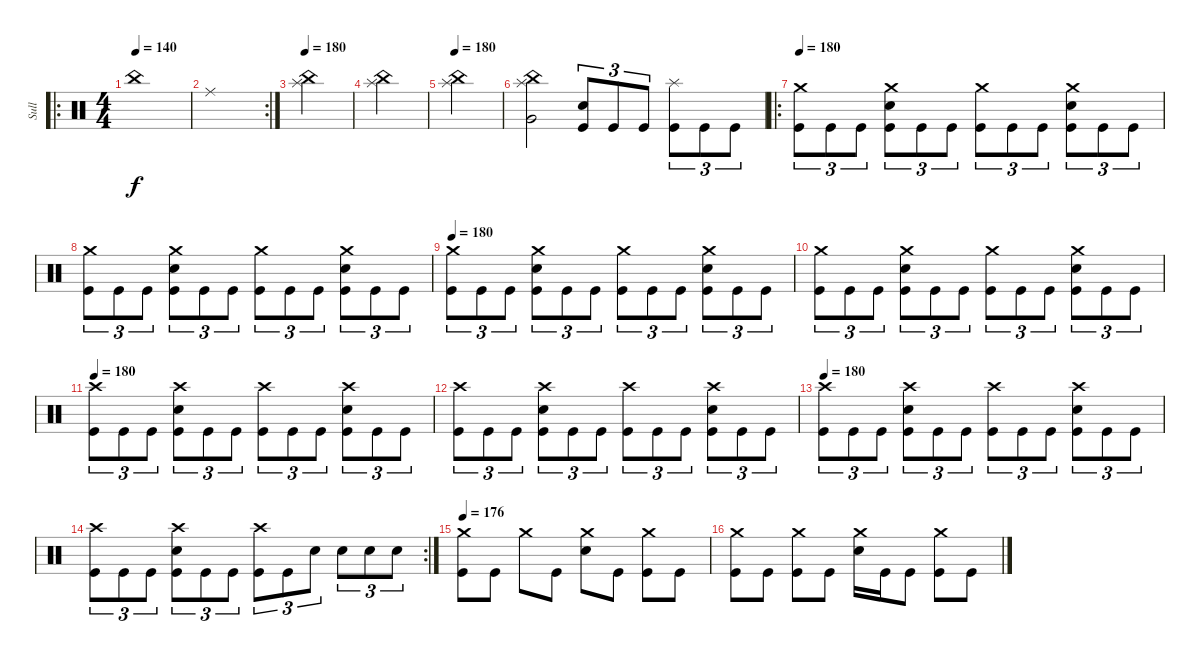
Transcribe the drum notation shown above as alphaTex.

\track ("Sull" "Sull") {instrument percussion}
\staff {score}
\articulation defaults
\ro
\ts (4 4)
\tempo 140
\tempo 180
\tempo 140
\clef neutral
\ks c "China (hit)".1{dy f}
|
\rc 2 "Ride (middle)".1
|
\tempo 180
("China (hit)" "Splash (hit)").4 |
("China (hit)" "Splash (hit)").4 |
\tempo 180
("China (hit)" "Splash (hit)").4 |
("China (hit)" "Splash (hit)" "Very Low Tom (hit)").2 ("Electric Snare (hit)" "Kick (hit)").8{tu (3 2)} "Kick (hit)".8{tu (3 2)} "Kick (hit)".8{tu (3 2)} ("Splash (hit)" "Kick (hit)").8{tu (3 2)} "Kick (hit)".8{tu (3 2)} "Kick (hit)".8{tu (3 2)} |
\ro
\tempo 180
("Crash medium (hit)" "Kick (hit)").8{tu (3 2)} "Kick (hit)".8{tu (3 2)} "Kick (hit)".8{tu (3 2)} ("Crash medium (hit)" "Electric Snare (hit)" "Kick (hit)").8{tu (3 2)} "Kick (hit)".8{tu (3 2)} "Kick (hit)".8{tu (3 2)} ("Crash medium (hit)" "Kick (hit)").8{tu (3 2)} "Kick (hit)".8{tu (3 2)} "Kick (hit)".8{tu (3 2)} ("Crash medium (hit)" "Electric Snare (hit)" "Kick (hit)").8{tu (3 2)} "Kick (hit)".8{tu (3 2)} "Kick (hit)".8{tu (3 2)} |
("Crash medium (hit)" "Kick (hit)").8{tu (3 2)} "Kick (hit)".8{tu (3 2)} "Kick (hit)".8{tu (3 2)} ("Crash medium (hit)" "Electric Snare (hit)" "Kick (hit)").8{tu (3 2)} "Kick (hit)".8{tu (3 2)} "Kick (hit)".8{tu (3 2)} ("Crash medium (hit)" "Kick (hit)").8{tu (3 2)} "Kick (hit)".8{tu (3 2)} "Kick (hit)".8{tu (3 2)} ("Crash medium (hit)" "Electric Snare (hit)" "Kick (hit)").8{tu (3 2)} "Kick (hit)".8{tu (3 2)} "Kick (hit)".8{tu (3 2)} |
\tempo 180
("Crash medium (hit)" "Kick (hit)").8{tu (3 2)} "Kick (hit)".8{tu (3 2)} "Kick (hit)".8{tu (3 2)} ("Crash medium (hit)" "Electric Snare (hit)" "Kick (hit)").8{tu (3 2)} "Kick (hit)".8{tu (3 2)} "Kick (hit)".8{tu (3 2)} ("Crash medium (hit)" "Kick (hit)").8{tu (3 2)} "Kick (hit)".8{tu (3 2)} "Kick (hit)".8{tu (3 2)} ("Crash medium (hit)" "Electric Snare (hit)" "Kick (hit)").8{tu (3 2)} "Kick (hit)".8{tu (3 2)} "Kick (hit)".8{tu (3 2)} |
("Crash medium (hit)" "Kick (hit)").8{tu (3 2)} "Kick (hit)".8{tu (3 2)} "Kick (hit)".8{tu (3 2)} ("Crash medium (hit)" "Electric Snare (hit)" "Kick (hit)").8{tu (3 2)} "Kick (hit)".8{tu (3 2)} "Kick (hit)".8{tu (3 2)} ("Crash medium (hit)" "Kick (hit)").8{tu (3 2)} "Kick (hit)".8{tu (3 2)} "Kick (hit)".8{tu (3 2)} ("Crash medium (hit)" "Electric Snare (hit)" "Kick (hit)").8{tu (3 2)} "Kick (hit)".8{tu (3 2)} "Kick (hit)".8{tu (3 2)} |
\tempo 180
("Crash high (hit)" "Kick (hit)").8{tu (3 2)} "Kick (hit)".8{tu (3 2)} "Kick (hit)".8{tu (3 2)} ("Crash high (hit)" "Electric Snare (hit)" "Kick (hit)").8{tu (3 2)} "Kick (hit)".8{tu (3 2)} "Kick (hit)".8{tu (3 2)} ("Crash high (hit)" "Kick (hit)").8{tu (3 2)} "Kick (hit)".8{tu (3 2)} "Kick (hit)".8{tu (3 2)} ("Crash high (hit)" "Electric Snare (hit)" "Kick (hit)").8{tu (3 2)} "Kick (hit)".8{tu (3 2)} "Kick (hit)".8{tu (3 2)} |
("Crash high (hit)" "Kick (hit)").8{tu (3 2)} "Kick (hit)".8{tu (3 2)} "Kick (hit)".8{tu (3 2)} ("Crash high (hit)" "Electric Snare (hit)" "Kick (hit)").8{tu (3 2)} "Kick (hit)".8{tu (3 2)} "Kick (hit)".8{tu (3 2)} ("Crash high (hit)" "Kick (hit)").8{tu (3 2)} "Kick (hit)".8{tu (3 2)} "Kick (hit)".8{tu (3 2)} ("Crash high (hit)" "Electric Snare (hit)" "Kick (hit)").8{tu (3 2)} "Kick (hit)".8{tu (3 2)} "Kick (hit)".8{tu (3 2)} |
\tempo 180
("Crash high (hit)" "Kick (hit)").8{tu (3 2)} "Kick (hit)".8{tu (3 2)} "Kick (hit)".8{tu (3 2)} ("Crash high (hit)" "Electric Snare (hit)" "Kick (hit)").8{tu (3 2)} "Kick (hit)".8{tu (3 2)} "Kick (hit)".8{tu (3 2)} ("Crash high (hit)" "Kick (hit)").8{tu (3 2)} "Kick (hit)".8{tu (3 2)} "Kick (hit)".8{tu (3 2)} ("Crash high (hit)" "Electric Snare (hit)" "Kick (hit)").8{tu (3 2)} "Kick (hit)".8{tu (3 2)} "Kick (hit)".8{tu (3 2)} |
\rc 2
("Crash high (hit)" "Kick (hit)").8{tu (3 2)} "Kick (hit)".8{tu (3 2)} "Kick (hit)".8{tu (3 2)} ("Crash high (hit)" "Electric Snare (hit)" "Kick (hit)").8{tu (3 2)} "Kick (hit)".8{tu (3 2)} "Kick (hit)".8{tu (3 2)} ("Crash high (hit)" "Kick (hit)").8{tu (3 2)} "Kick (hit)".8{tu (3 2)} "Electric Snare (hit)".8{tu (3 2)} "Electric Snare (hit)".8{tu (3 2)} "Electric Snare (hit)".8{tu (3 2)} "Electric Snare (hit)".8{tu (3 2)} |
\tempo 176
("Crash medium (hit)" "Kick (hit)").8 "Kick (hit)".8 "Crash medium (hit)".8 "Kick (hit)".8 ("Crash medium (hit)" "Electric Snare (hit)").8 "Kick (hit)".8 ("Crash medium (hit)" "Kick (hit)").8 "Kick (hit)".8 |
("Crash medium (hit)" "Kick (hit)").8 "Kick (hit)".8 ("Crash medium (hit)" "Kick (hit)").8 "Kick (hit)".8 ("Crash medium (hit)" "Electric Snare (hit)").16 "Kick (hit)".16 "Kick (hit)".8 ("Crash medium (hit)" "Kick (hit)").8 "Kick (hit)".8
